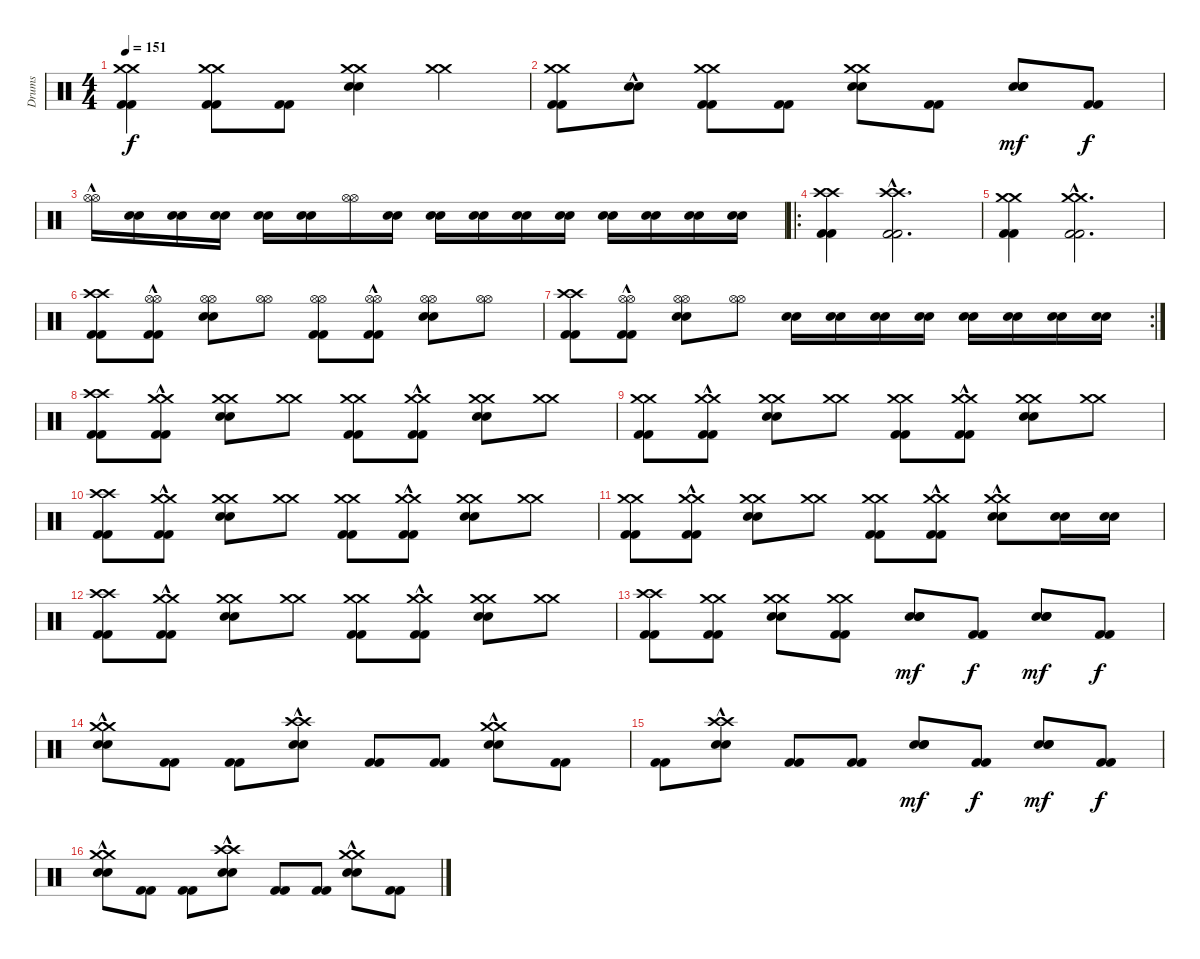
\track ("Drums" "Drums") {instrument percussion}
\staff {score}
\articulation defaults
\ts (4 4)
\tempo 151
\clef neutral
\ks c
("Kick (hit) 2" "Kick (hit) 2" "Crash medium (hit)" "Crash medium (hit)").4{dy f} ("Kick (hit) 2" "Kick (hit) 2" "Crash medium (hit)" "Crash medium (hit)").8 ("Kick (hit) 2" "Kick (hit) 2").8 ("Electric Snare (hit)" "Electric Snare (hit)" "Crash medium (hit)" "Crash medium (hit)").4 ("Crash medium (hit)" "Crash medium (hit)").4 |
("Kick (hit) 2" "Kick (hit) 2" "Crash medium (hit)" "Crash medium (hit)").8 ("Electric Snare (hit)"{hac} "Electric Snare (hit)"{hac}).8 ("Kick (hit) 2" "Kick (hit) 2" "Crash medium (hit)" "Crash medium (hit)").8 ("Kick (hit) 2" "Kick (hit) 2").8 ("Electric Snare (hit)" "Electric Snare (hit)" "Crash medium (hit)" "Crash medium (hit)").8 ("Kick (hit) 2" "Kick (hit) 2").8 ("Electric Snare (hit)" "Electric Snare (hit)" "Electric Snare (hit)").8{dy mf} ("Kick (hit) 2" "Kick (hit) 2").8{dy f} |
("Hi-Hat (open)"{hac} "Hi-Hat (open)"{hac}).16 ("Electric Snare (hit)" "Electric Snare (hit)").16 ("Electric Snare (hit)" "Electric Snare (hit)").16 ("Electric Snare (hit)" "Electric Snare (hit)").16 ("Electric Snare (hit)" "Electric Snare (hit)").16 ("Electric Snare (hit)" "Electric Snare (hit)").16 ("Hi-Hat (open)" "Hi-Hat (open)").16 ("Electric Snare (hit)" "Electric Snare (hit)").16 ("Electric Snare (hit)" "Electric Snare (hit)").16 ("Electric Snare (hit)" "Electric Snare (hit)").16 ("Electric Snare (hit)" "Electric Snare (hit)").16 ("Electric Snare (hit)" "Electric Snare (hit)").16 ("Electric Snare (hit)" "Electric Snare (hit)").16 ("Electric Snare (hit)" "Electric Snare (hit)").16 ("Electric Snare (hit)" "Electric Snare (hit)").16 ("Electric Snare (hit)" "Electric Snare (hit)").16 |
\ro
("Kick (hit) 2" "Kick (hit) 2" "Crash high (hit)" "Crash high (hit)").4 ("Kick (hit) 2"{hac} "Kick (hit) 2"{hac} "Crash high (hit)" "Crash high (hit)").2{d} |
("Kick (hit) 2" "Kick (hit) 2" "Crash medium (hit)" "Crash medium (hit)").4 ("Kick (hit) 2"{hac} "Kick (hit) 2"{hac} "Crash medium (hit)" "Crash medium (hit)").2{d} |
("Kick (hit) 2" "Kick (hit) 2" "Crash high (hit)" "Crash high (hit)").8 ("Kick (hit) 2"{hac} "Kick (hit) 2"{hac} "Hi-Hat (open)" "Hi-Hat (open)").8 ("Electric Snare (hit)" "Electric Snare (hit)" "Hi-Hat (open)" "Hi-Hat (open)").8 ("Hi-Hat (open)" "Hi-Hat (open)").8 ("Kick (hit) 2" "Kick (hit) 2" "Hi-Hat (open)" "Hi-Hat (open)").8 ("Kick (hit) 2"{hac} "Kick (hit) 2"{hac} "Hi-Hat (open)" "Hi-Hat (open)").8 ("Electric Snare (hit)" "Electric Snare (hit)" "Hi-Hat (open)" "Hi-Hat (open)").8 ("Hi-Hat (open)" "Hi-Hat (open)").8 |
\rc 2
("Kick (hit) 2" "Kick (hit) 2" "Crash high (hit)" "Crash high (hit)").8 ("Kick (hit) 2"{hac} "Kick (hit) 2"{hac} "Hi-Hat (open)" "Hi-Hat (open)").8 ("Electric Snare (hit)" "Electric Snare (hit)" "Hi-Hat (open)" "Hi-Hat (open)").8 ("Hi-Hat (open)" "Hi-Hat (open)").8 ("Electric Snare (hit)" "Electric Snare (hit)").16 ("Electric Snare (hit)" "Electric Snare (hit)").16 ("Electric Snare (hit)" "Electric Snare (hit)").16 ("Electric Snare (hit)" "Electric Snare (hit)").16 ("Electric Snare (hit)" "Electric Snare (hit)").16 ("Electric Snare (hit)" "Electric Snare (hit)").16 ("Electric Snare (hit)" "Electric Snare (hit)").16 ("Electric Snare (hit)" "Electric Snare (hit)").16 |
("Kick (hit) 2" "Kick (hit) 2" "Crash high (hit)" "Crash high (hit)").8 ("Kick (hit) 2"{hac} "Kick (hit) 2"{hac} "Crash medium (hit)" "Crash medium (hit)").8 ("Electric Snare (hit)" "Electric Snare (hit)" "Crash medium (hit)" "Crash medium (hit)").8 ("Crash medium (hit)" "Crash medium (hit)").8 ("Kick (hit) 2" "Kick (hit) 2" "Crash medium (hit)" "Crash medium (hit)").8 ("Kick (hit) 2"{hac} "Kick (hit) 2"{hac} "Crash medium (hit)" "Crash medium (hit)").8 ("Electric Snare (hit)" "Electric Snare (hit)" "Crash medium (hit)" "Crash medium (hit)").8 ("Crash medium (hit)" "Crash medium (hit)").8 |
("Kick (hit) 2" "Kick (hit) 2" "Crash medium (hit)" "Crash medium (hit)").8 ("Kick (hit) 2"{hac} "Kick (hit) 2"{hac} "Crash medium (hit)" "Crash medium (hit)").8 ("Electric Snare (hit)" "Electric Snare (hit)" "Crash medium (hit)" "Crash medium (hit)").8 ("Crash medium (hit)" "Crash medium (hit)").8 ("Kick (hit) 2" "Kick (hit) 2" "Crash medium (hit)" "Crash medium (hit)").8 ("Kick (hit) 2"{hac} "Kick (hit) 2"{hac} "Crash medium (hit)" "Crash medium (hit)").8 ("Electric Snare (hit)" "Electric Snare (hit)" "Crash medium (hit)" "Crash medium (hit)").8 ("Crash medium (hit)" "Crash medium (hit)").8 |
("Kick (hit) 2" "Kick (hit) 2" "Crash high (hit)" "Crash high (hit)").8 ("Kick (hit) 2"{hac} "Kick (hit) 2"{hac} "Crash medium (hit)" "Crash medium (hit)").8 ("Electric Snare (hit)" "Electric Snare (hit)" "Crash medium (hit)" "Crash medium (hit)").8 ("Crash medium (hit)" "Crash medium (hit)").8 ("Kick (hit) 2" "Kick (hit) 2" "Crash medium (hit)" "Crash medium (hit)").8 ("Kick (hit) 2"{hac} "Kick (hit) 2"{hac} "Crash medium (hit)" "Crash medium (hit)").8 ("Electric Snare (hit)" "Electric Snare (hit)" "Crash medium (hit)" "Crash medium (hit)").8 ("Crash medium (hit)" "Crash medium (hit)").8 |
("Kick (hit) 2" "Kick (hit) 2" "Crash medium (hit)" "Crash medium (hit)").8 ("Kick (hit) 2"{hac} "Kick (hit) 2"{hac} "Crash medium (hit)" "Crash medium (hit)").8 ("Electric Snare (hit)" "Electric Snare (hit)" "Crash medium (hit)" "Crash medium (hit)").8 ("Crash medium (hit)" "Crash medium (hit)").8 ("Kick (hit) 2" "Kick (hit) 2" "Crash medium (hit)" "Crash medium (hit)").8 ("Kick (hit) 2"{hac} "Kick (hit) 2"{hac} "Crash medium (hit)" "Crash medium (hit)").8 ("Electric Snare (hit)" "Electric Snare (hit)" "Crash medium (hit)"{hac} "Crash medium (hit)"{hac}).8 ("Electric Snare (hit)" "Electric Snare (hit)").16 ("Electric Snare (hit)" "Electric Snare (hit)").16 |
("Kick (hit) 2" "Kick (hit) 2" "Crash high (hit)" "Crash high (hit)").8 ("Kick (hit) 2"{hac} "Kick (hit) 2"{hac} "Crash medium (hit)" "Crash medium (hit)").8 ("Electric Snare (hit)" "Electric Snare (hit)" "Crash medium (hit)" "Crash medium (hit)").8 ("Crash medium (hit)" "Crash medium (hit)").8 ("Kick (hit) 2" "Kick (hit) 2" "Crash medium (hit)" "Crash medium (hit)").8 ("Kick (hit) 2"{hac} "Kick (hit) 2"{hac} "Crash medium (hit)" "Crash medium (hit)").8 ("Electric Snare (hit)" "Electric Snare (hit)" "Crash medium (hit)" "Crash medium (hit)").8 ("Crash medium (hit)" "Crash medium (hit)").8 |
("Kick (hit) 2" "Kick (hit) 2" "Crash high (hit)" "Crash high (hit)").8 ("Kick (hit) 2" "Kick (hit) 2" "Crash medium (hit)" "Crash medium (hit)").8 ("Electric Snare (hit)" "Electric Snare (hit)" "Crash medium (hit)" "Crash medium (hit)").8 ("Kick (hit) 2" "Kick (hit) 2" "Crash medium (hit)" "Crash medium (hit)").8 ("Electric Snare (hit)" "Electric Snare (hit)" "Electric Snare (hit)").8{dy mf} ("Kick (hit) 2" "Kick (hit) 2").8{dy f} ("Electric Snare (hit)" "Electric Snare (hit)" "Electric Snare (hit)").8{dy mf} ("Kick (hit) 2" "Kick (hit) 2").8{dy f} |
("Electric Snare (hit)"{hac} "Electric Snare (hit)"{hac} "Crash medium (hit)"{hac} "Crash medium (hit)"{hac}).8 ("Kick (hit) 2" "Kick (hit) 2").8 ("Kick (hit) 2" "Kick (hit) 2").8 ("Electric Snare (hit)"{hac} "Electric Snare (hit)"{hac} "Crash high (hit)"{hac} "Crash high (hit)"{hac}).8 ("Kick (hit) 2" "Kick (hit) 2").8 ("Kick (hit) 2" "Kick (hit) 2").8 ("Electric Snare (hit)"{hac} "Electric Snare (hit)"{hac} "Crash medium (hit)" "Crash medium (hit)").8 ("Kick (hit) 2" "Kick (hit) 2").8 |
("Kick (hit) 2" "Kick (hit) 2").8 ("Electric Snare (hit)"{hac} "Electric Snare (hit)"{hac} "Crash high (hit)" "Crash high (hit)").8 ("Kick (hit) 2" "Kick (hit) 2").8 ("Kick (hit) 2" "Kick (hit) 2").8 ("Electric Snare (hit)" "Electric Snare (hit)" "Electric Snare (hit)").8{dy mf} ("Kick (hit) 2" "Kick (hit) 2").8{dy f} ("Electric Snare (hit)" "Electric Snare (hit)" "Electric Snare (hit)").8{dy mf} ("Kick (hit) 2" "Kick (hit) 2").8{dy f} |
("Electric Snare (hit)"{hac} "Electric Snare (hit)"{hac} "Crash medium (hit)"{hac} "Crash medium (hit)"{hac}).8 ("Kick (hit) 2" "Kick (hit) 2").8 ("Kick (hit) 2" "Kick (hit) 2").8 ("Electric Snare (hit)"{hac} "Electric Snare (hit)"{hac} "Crash high (hit)"{hac} "Crash high (hit)"{hac}).8 ("Kick (hit) 2" "Kick (hit) 2").8 ("Kick (hit) 2" "Kick (hit) 2").8 ("Electric Snare (hit)"{hac} "Electric Snare (hit)"{hac} "Crash medium (hit)" "Crash medium (hit)").8 ("Kick (hit) 2" "Kick (hit) 2").8
